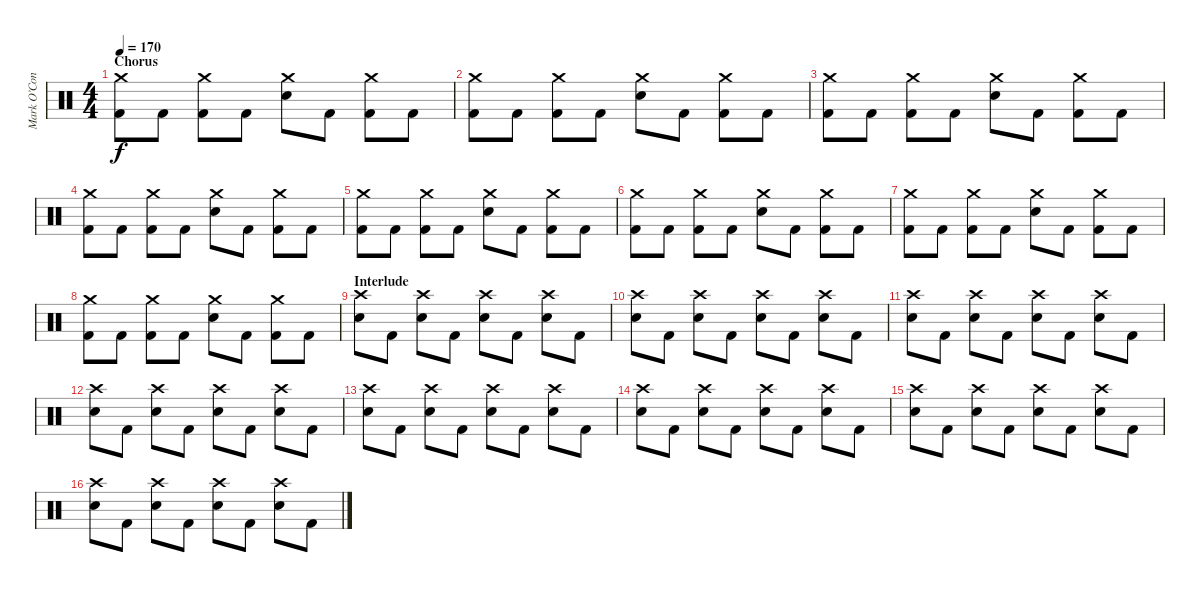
\track ("Mark O’Connell - Drums" "Mark O’Con") {instrument percussion}
\staff {score}
\articulation defaults
\ts (4 4)
\section ("" "Chorus")
\tempo 170
\clef neutral
\ks c
("Crash medium (hit)" "Kick (hit) 2").8{dy f} "Kick (hit) 2".8 ("Crash medium (hit)" "Kick (hit) 2").8 "Kick (hit) 2".8 ("Crash medium (hit)" "Snare (hit) 2").8 "Kick (hit) 2".8 ("Crash medium (hit)" "Kick (hit) 2").8 "Kick (hit) 2".8 |
("Crash medium (hit)" "Kick (hit) 2").8 "Kick (hit) 2".8 ("Crash medium (hit)" "Kick (hit) 2").8 "Kick (hit) 2".8 ("Crash medium (hit)" "Snare (hit) 2").8 "Kick (hit) 2".8 ("Crash medium (hit)" "Kick (hit) 2").8 "Kick (hit) 2".8 |
("Crash medium (hit)" "Kick (hit) 2").8 "Kick (hit) 2".8 ("Crash medium (hit)" "Kick (hit) 2").8 "Kick (hit) 2".8 ("Crash medium (hit)" "Snare (hit) 2").8 "Kick (hit) 2".8 ("Crash medium (hit)" "Kick (hit) 2").8 "Kick (hit) 2".8 |
("Crash medium (hit)" "Kick (hit) 2").8 "Kick (hit) 2".8 ("Crash medium (hit)" "Kick (hit) 2").8 "Kick (hit) 2".8 ("Crash medium (hit)" "Snare (hit) 2").8 "Kick (hit) 2".8 ("Crash medium (hit)" "Kick (hit) 2").8 "Kick (hit) 2".8 |
("Crash medium (hit)" "Kick (hit) 2").8 "Kick (hit) 2".8 ("Crash medium (hit)" "Kick (hit) 2").8 "Kick (hit) 2".8 ("Crash medium (hit)" "Snare (hit) 2").8 "Kick (hit) 2".8 ("Crash medium (hit)" "Kick (hit) 2").8 "Kick (hit) 2".8 |
("Crash medium (hit)" "Kick (hit) 2").8 "Kick (hit) 2".8 ("Crash medium (hit)" "Kick (hit) 2").8 "Kick (hit) 2".8 ("Crash medium (hit)" "Snare (hit) 2").8 "Kick (hit) 2".8 ("Crash medium (hit)" "Kick (hit) 2").8 "Kick (hit) 2".8 |
("Crash medium (hit)" "Kick (hit) 2").8 "Kick (hit) 2".8 ("Crash medium (hit)" "Kick (hit) 2").8 "Kick (hit) 2".8 ("Crash medium (hit)" "Snare (hit) 2").8 "Kick (hit) 2".8 ("Crash medium (hit)" "Kick (hit) 2").8 "Kick (hit) 2".8 |
("Crash medium (hit)" "Kick (hit) 2").8 "Kick (hit) 2".8 ("Crash medium (hit)" "Kick (hit) 2").8 "Kick (hit) 2".8 ("Crash medium (hit)" "Snare (hit) 2").8 "Kick (hit) 2".8 ("Crash medium (hit)" "Kick (hit) 2").8 "Kick (hit) 2".8 |
\section ("" "Interlude")
("Crash high (hit)" "Snare (hit) 2").8 "Kick (hit) 2".8 ("Crash high (hit)" "Snare (hit) 2").8 "Kick (hit) 2".8 ("Crash high (hit)" "Snare (hit) 2").8 "Kick (hit) 2".8 ("Crash high (hit)" "Snare (hit) 2").8 "Kick (hit) 2".8 |
("Crash high (hit)" "Snare (hit) 2").8 "Kick (hit) 2".8 ("Crash high (hit)" "Snare (hit) 2").8 "Kick (hit) 2".8 ("Crash high (hit)" "Snare (hit) 2").8 "Kick (hit) 2".8 ("Crash high (hit)" "Snare (hit) 2").8 "Kick (hit) 2".8 |
("Crash high (hit)" "Snare (hit) 2").8 "Kick (hit) 2".8 ("Crash high (hit)" "Snare (hit) 2").8 "Kick (hit) 2".8 ("Crash high (hit)" "Snare (hit) 2").8 "Kick (hit) 2".8 ("Crash high (hit)" "Snare (hit) 2").8 "Kick (hit) 2".8 |
("Crash high (hit)" "Snare (hit) 2").8 "Kick (hit) 2".8 ("Crash high (hit)" "Snare (hit) 2").8 "Kick (hit) 2".8 ("Crash high (hit)" "Snare (hit) 2").8 "Kick (hit) 2".8 ("Crash high (hit)" "Snare (hit) 2").8 "Kick (hit) 2".8 |
("Crash high (hit)" "Snare (hit) 2").8 "Kick (hit) 2".8 ("Crash high (hit)" "Snare (hit) 2").8 "Kick (hit) 2".8 ("Crash high (hit)" "Snare (hit) 2").8 "Kick (hit) 2".8 ("Crash high (hit)" "Snare (hit) 2").8 "Kick (hit) 2".8 |
("Crash high (hit)" "Snare (hit) 2").8 "Kick (hit) 2".8 ("Crash high (hit)" "Snare (hit) 2").8 "Kick (hit) 2".8 ("Crash high (hit)" "Snare (hit) 2").8 "Kick (hit) 2".8 ("Crash high (hit)" "Snare (hit) 2").8 "Kick (hit) 2".8 |
("Crash high (hit)" "Snare (hit) 2").8 "Kick (hit) 2".8 ("Crash high (hit)" "Snare (hit) 2").8 "Kick (hit) 2".8 ("Crash high (hit)" "Snare (hit) 2").8 "Kick (hit) 2".8 ("Crash high (hit)" "Snare (hit) 2").8 "Kick (hit) 2".8 |
("Crash high (hit)" "Snare (hit) 2").8 "Kick (hit) 2".8 ("Crash high (hit)" "Snare (hit) 2").8 "Kick (hit) 2".8 ("Crash high (hit)" "Snare (hit) 2").8 "Kick (hit) 2".8 ("Crash high (hit)" "Snare (hit) 2").8 "Kick (hit) 2".8
